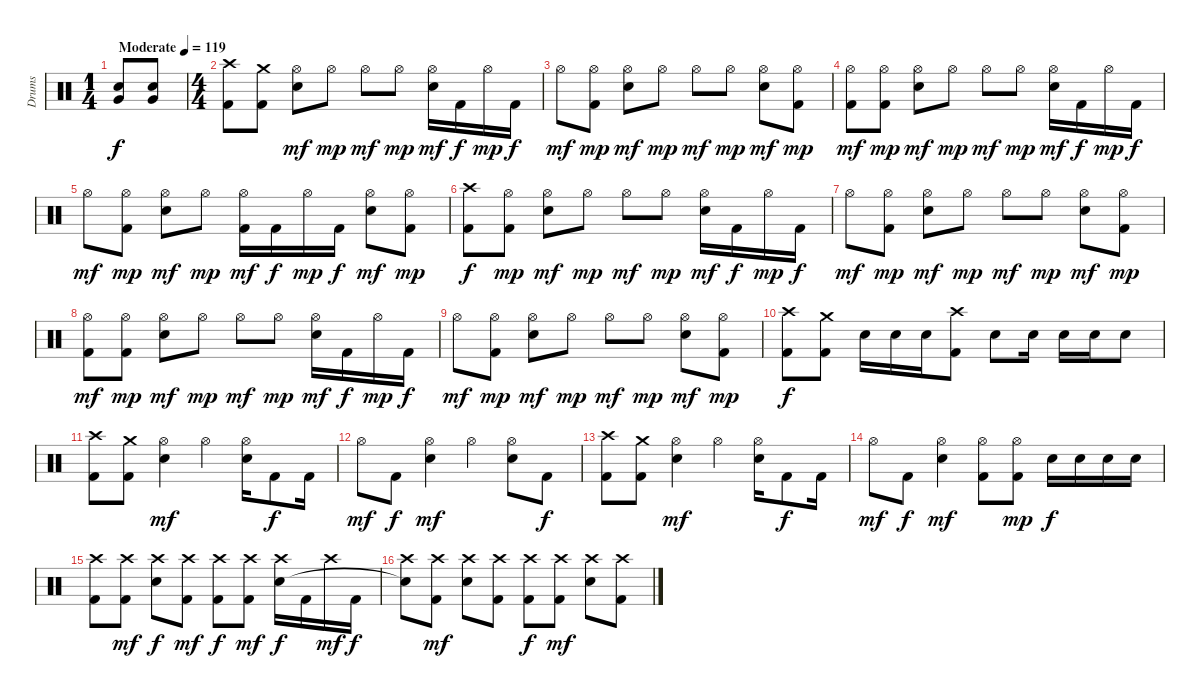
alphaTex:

\track ("Drums" "Drums") {instrument percussion}
\staff {score}
\articulation defaults
\ts (1 4)
\tempo (119 "Moderate")
\clef neutral
\ks c
("Very Low Tom (hit)" "Electric Snare (hit)").8{dy f} ("Very Low Tom (hit)" "Electric Snare (hit)").8 |
\ts (4 4)
("Crash high (hit)" "Kick (hit) 2").8 ("Crash medium (hit)" "Kick (hit) 2").8 ("Hi-Hat (open)" "Electric Snare (hit)").8{dy mf} "Hi-Hat (open)".8{dy mp} "Hi-Hat (open)".8{dy mf} "Hi-Hat (open)".8{dy mp} ("Hi-Hat (open)" "Electric Snare (hit)").16{dy mf} "Kick (hit) 2".16{dy f} "Hi-Hat (open)".16{dy mp} "Kick (hit) 2".16{dy f} |
"Hi-Hat (open)".8{dy mf} ("Hi-Hat (open)" "Kick (hit) 2").8{dy mp} ("Hi-Hat (open)" "Electric Snare (hit)").8{dy mf} "Hi-Hat (open)".8{dy mp} "Hi-Hat (open)".8{dy mf} "Hi-Hat (open)".8{dy mp} ("Hi-Hat (open)" "Electric Snare (hit)").8{dy mf} ("Hi-Hat (open)" "Kick (hit) 2").8{dy mp} |
("Hi-Hat (open)" "Kick (hit) 2").8{dy mf} ("Hi-Hat (open)" "Kick (hit) 2").8{dy mp} ("Hi-Hat (open)" "Electric Snare (hit)").8{dy mf} "Hi-Hat (open)".8{dy mp} "Hi-Hat (open)".8{dy mf} "Hi-Hat (open)".8{dy mp} ("Hi-Hat (open)" "Electric Snare (hit)").16{dy mf} "Kick (hit) 2".16{dy f} "Hi-Hat (open)".16{dy mp} "Kick (hit) 2".16{dy f} |
"Hi-Hat (open)".8{dy mf} ("Hi-Hat (open)" "Kick (hit) 2").8{dy mp} ("Hi-Hat (open)" "Electric Snare (hit)").8{dy mf} "Hi-Hat (open)".8{dy mp} ("Hi-Hat (open)" "Kick (hit) 2").16{dy mf} "Kick (hit) 2".16{dy f} "Hi-Hat (open)".16{dy mp} "Kick (hit) 2".16{dy f} ("Hi-Hat (open)" "Electric Snare (hit)").8{dy mf} ("Hi-Hat (open)" "Kick (hit) 2").8{dy mp} |
("Crash high (hit)" "Kick (hit) 2").8{dy f} ("Hi-Hat (open)" "Kick (hit) 2").8{dy mp} ("Hi-Hat (open)" "Electric Snare (hit)").8{dy mf} "Hi-Hat (open)".8{dy mp} "Hi-Hat (open)".8{dy mf} "Hi-Hat (open)".8{dy mp} ("Hi-Hat (open)" "Electric Snare (hit)").16{dy mf} "Kick (hit) 2".16{dy f} "Hi-Hat (open)".16{dy mp} "Kick (hit) 2".16{dy f} |
"Hi-Hat (open)".8{dy mf} ("Hi-Hat (open)" "Kick (hit) 2").8{dy mp} ("Hi-Hat (open)" "Electric Snare (hit)").8{dy mf} "Hi-Hat (open)".8{dy mp} "Hi-Hat (open)".8{dy mf} "Hi-Hat (open)".8{dy mp} ("Hi-Hat (open)" "Electric Snare (hit)").8{dy mf} ("Hi-Hat (open)" "Kick (hit) 2").8{dy mp} |
("Hi-Hat (open)" "Kick (hit) 2").8{dy mf} ("Hi-Hat (open)" "Kick (hit) 2").8{dy mp} ("Hi-Hat (open)" "Electric Snare (hit)").8{dy mf} "Hi-Hat (open)".8{dy mp} "Hi-Hat (open)".8{dy mf} "Hi-Hat (open)".8{dy mp} ("Hi-Hat (open)" "Electric Snare (hit)").16{dy mf} "Kick (hit) 2".16{dy f} "Hi-Hat (open)".16{dy mp} "Kick (hit) 2".16{dy f} |
"Hi-Hat (open)".8{dy mf} ("Hi-Hat (open)" "Kick (hit) 2").8{dy mp} ("Hi-Hat (open)" "Electric Snare (hit)").8{dy mf} "Hi-Hat (open)".8{dy mp} "Hi-Hat (open)".8{dy mf} "Hi-Hat (open)".8{dy mp} ("Hi-Hat (open)" "Electric Snare (hit)").8{dy mf} ("Hi-Hat (open)" "Kick (hit) 2").8{dy mp} |
("Crash high (hit)" "Kick (hit) 2").8{dy f} ("Crash medium (hit)" "Kick (hit) 2").8 "Electric Snare (hit)".16 "Electric Snare (hit)".16 "Electric Snare (hit)".16 ("Crash high (hit)" "Kick (hit) 2").8 "Electric Snare (hit)".8 "Electric Snare (hit)".16 "Electric Snare (hit)".16 "Electric Snare (hit)".16 "Electric Snare (hit)".8 |
("Crash high (hit)" "Kick (hit) 2").8 ("Crash medium (hit)" "Kick (hit) 2").8 ("Hi-Hat (open)" "Electric Snare (hit)").4{dy mf} "Hi-Hat (open)".4 ("Hi-Hat (open)" "Electric Snare (hit)").16 "Kick (hit) 2".8{dy f} "Kick (hit) 2".16 |
"Hi-Hat (open)".8{dy mf} "Kick (hit) 2".8{dy f} ("Hi-Hat (open)" "Electric Snare (hit)").4{dy mf} "Hi-Hat (open)".4 ("Hi-Hat (open)" "Electric Snare (hit)").8 "Kick (hit) 2".8{dy f} |
("Crash high (hit)" "Kick (hit) 2").8 ("Crash medium (hit)" "Kick (hit) 2").8 ("Hi-Hat (open)" "Electric Snare (hit)").4{dy mf} "Hi-Hat (open)".4 ("Hi-Hat (open)" "Electric Snare (hit)").16 "Kick (hit) 2".8{dy f} "Kick (hit) 2".16 |
"Hi-Hat (open)".8{dy mf} "Kick (hit) 2".8{dy f} ("Hi-Hat (open)" "Electric Snare (hit)").4{dy mf} ("Hi-Hat (open)" "Kick (hit) 2").8 ("Hi-Hat (open)" "Kick (hit) 2").8{dy mp} "Electric Snare (hit)".16{dy f} "Electric Snare (hit)".16 "Electric Snare (hit)".16 "Electric Snare (hit)".16 |
("Crash high (hit)" "Kick (hit) 2").8 ("Crash high (hit)" "Kick (hit) 2").8{dy mf} ("Crash high (hit)" "Electric Snare (hit)").8{dy f} ("Crash high (hit)" "Kick (hit) 2").8{dy mf} ("Crash high (hit)" "Kick (hit) 2").8{dy f} ("Crash high (hit)" "Kick (hit) 2").8{dy mf} ("Crash high (hit)" "Electric Snare (hit)").16{dy f} "Kick (hit) 2".16 "Crash high (hit)".16{dy mf} "Kick (hit) 2".16{dy f} |
("Crash high (hit)" "Snare (hit)"{t}).8 ("Crash high (hit)" "Kick (hit) 2").8{dy mf} ("Crash high (hit)" "Electric Snare (hit)").8 ("Crash high (hit)" "Kick (hit) 2").8 ("Crash high (hit)" "Kick (hit) 2").8{dy f} ("Crash high (hit)" "Kick (hit) 2").8{dy mf} ("Crash high (hit)" "Electric Snare (hit)").8 ("Crash high (hit)" "Kick (hit) 2").8
